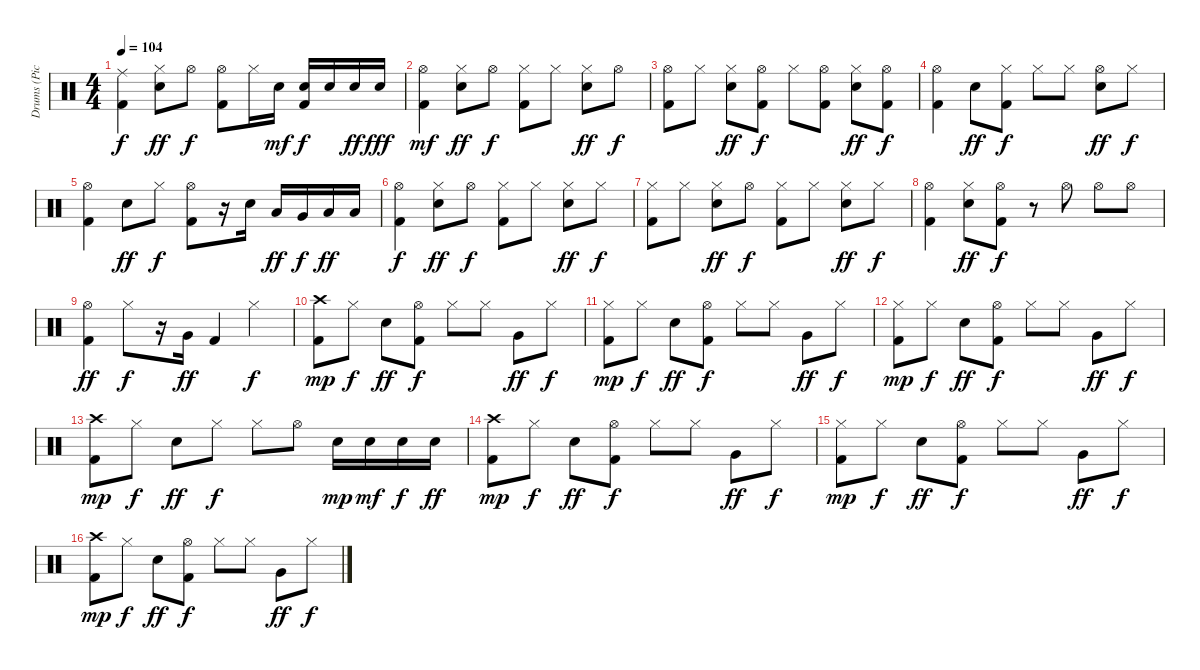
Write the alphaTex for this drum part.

\track ("Drums (Pick Whiters)" "Drums (Pic") {instrument percussion}
\staff {score}
\articulation defaults
\ts (4 4)
\tempo 104
\clef neutral
\ks c
("Kick (hit) 2" "Ride (middle)").4{dy f} ("Snare (hit) 2" "Hi-Hat (closed)").8{dy ff} "Hi-Hat (open)".8{dy f} ("Kick (hit) 2" "Hi-Hat (open)").8 "Hi-Hat (closed)".16 "Snare (hit) 2".16{dy mf} ("Kick (hit) 2" "Snare (hit) 2").16{dy f} "Snare (hit) 2".16 "Snare (hit) 2".16{dy ff} "Snare (hit) 2".16{dy fff} |
("Kick (hit) 2" "Hi-Hat (open)").4{dy mf} ("Snare (hit) 2" "Hi-Hat (closed)").8{dy ff} "Hi-Hat (open)".8{dy f} ("Kick (hit) 2" "Hi-Hat (closed)").8 "Hi-Hat (closed)".8 ("Snare (hit) 2" "Hi-Hat (closed)").8{dy ff} "Hi-Hat (open)".8{dy f} |
("Kick (hit) 2" "Hi-Hat (open)").8 "Hi-Hat (closed)".8 ("Snare (hit) 2" "Hi-Hat (closed)").8{dy ff} ("Hi-Hat (open)" "Kick (hit) 2").8{dy f} "Hi-Hat (closed)".8 ("Hi-Hat (open)" "Kick (hit) 2").8 ("Snare (hit) 2" "Hi-Hat (closed)").8{dy ff} ("Kick (hit) 2" "Hi-Hat (open)").8{dy f} |
("Hi-Hat (open)" "Kick (hit) 2").4 "Snare (hit) 2".8{dy ff} ("Kick (hit) 2" "Hi-Hat (closed)").8{dy f} "Hi-Hat (closed)".8 "Hi-Hat (closed)".8 ("Hi-Hat (open)" "Snare (hit) 2").8{dy ff} "Hi-Hat (closed)".8{dy f} |
("Kick (hit) 2" "Hi-Hat (open)").4 "Snare (hit) 2".8{dy ff} "Hi-Hat (closed)".8{dy f} ("Kick (hit) 2" "Hi-Hat (open)").8 r.16 "Snare (hit) 2".16 "Low Tom (hit)".16{dy ff} "Very Low Tom (hit)".16{dy f} "Low Floor Tom (hit)".16{dy ff} "Low Floor Tom (hit)".16 |
("Hi-Hat (open)" "Kick (hit) 2").4{dy f} ("Hi-Hat (closed)" "Snare (hit) 2").8{dy ff} "Hi-Hat (open)".8{dy f} ("Kick (hit) 2" "Hi-Hat (closed)").8 "Hi-Hat (closed)".8 ("Snare (hit) 2" "Hi-Hat (closed)").8{dy ff} "Hi-Hat (closed)".8{dy f} |
("Kick (hit) 2" "Hi-Hat (closed)").8 "Hi-Hat (closed)".8 ("Snare (hit) 2" "Hi-Hat (closed)").8{dy ff} "Hi-Hat (open)".8{dy f} ("Kick (hit) 2" "Hi-Hat (closed)").8 "Hi-Hat (closed)".8 ("Snare (hit) 2" "Hi-Hat (closed)").8{dy ff} "Hi-Hat (closed)".8{dy f} |
("Kick (hit) 2" "Hi-Hat (open)").4 ("Snare (hit) 2" "Hi-Hat (closed)").8{dy ff} ("Kick (hit) 2" "Hi-Hat (open)").8{dy f} r.8 "Hi-Hat (open)".8 "Hi-Hat (open)".8 "Hi-Hat (open)".8 |
("Kick (hit) 2" "Hi-Hat (open)").4{dy ff} "Hi-Hat (closed)".8{dy f} r.16 "Very Low Tom (hit)".16{dy ff} "Kick (hit) 2".4 "Hi-Hat (closed)".4{dy f} |
("Kick (hit) 2" "Crash high (hit)").8{dy mp} "Hi-Hat (closed)".8{dy f} "Snare (hit) 2".8{dy ff} ("Kick (hit) 2" "Hi-Hat (open)").8{dy f} "Hi-Hat (closed)".8 "Hi-Hat (closed)".8 "Very Low Tom (hit)".8{dy ff} "Hi-Hat (closed)".8{dy f} |
("Kick (hit) 2" "Hi-Hat (closed)").8{dy mp} "Hi-Hat (closed)".8{dy f} "Snare (hit) 2".8{dy ff} ("Kick (hit) 2" "Hi-Hat (open)").8{dy f} "Hi-Hat (closed)".8 "Hi-Hat (closed)".8 "Very Low Tom (hit)".8{dy ff} "Hi-Hat (closed)".8{dy f} |
("Kick (hit) 2" "Hi-Hat (closed)").8{dy mp} "Hi-Hat (closed)".8{dy f} "Snare (hit) 2".8{dy ff} ("Kick (hit) 2" "Hi-Hat (open)").8{dy f} "Hi-Hat (closed)".8 "Hi-Hat (closed)".8 "Very Low Tom (hit)".8{dy ff} "Hi-Hat (closed)".8{dy f} |
("Kick (hit) 2" "Crash high (hit)").8{dy mp} "Hi-Hat (closed)".8{dy f} "Snare (hit) 2".8{dy ff} "Hi-Hat (closed)".8{dy f} "Hi-Hat (closed)".8 "Hi-Hat (open)".8 "Snare (hit) 2".16{dy mp} "Snare (hit) 2".16{dy mf} "Snare (hit) 2".16{dy f} "Snare (hit) 2".16{dy ff} |
("Kick (hit) 2" "Crash high (hit)").8{dy mp} "Hi-Hat (closed)".8{dy f} "Snare (hit) 2".8{dy ff} ("Kick (hit) 2" "Hi-Hat (open)").8{dy f} "Hi-Hat (closed)".8 "Hi-Hat (closed)".8 "Very Low Tom (hit)".8{dy ff} "Hi-Hat (closed)".8{dy f} |
("Kick (hit) 2" "Hi-Hat (closed)").8{dy mp} "Hi-Hat (closed)".8{dy f} "Snare (hit) 2".8{dy ff} ("Kick (hit) 2" "Hi-Hat (open)").8{dy f} "Hi-Hat (closed)".8 "Hi-Hat (closed)".8 "Very Low Tom (hit)".8{dy ff} "Hi-Hat (closed)".8{dy f} |
("Kick (hit) 2" "Crash high (hit)").8{dy mp} "Hi-Hat (closed)".8{dy f} "Snare (hit) 2".8{dy ff} ("Kick (hit) 2" "Hi-Hat (open)").8{dy f} "Hi-Hat (closed)".8 "Hi-Hat (closed)".8 "Very Low Tom (hit)".8{dy ff} "Hi-Hat (closed)".8{dy f}
